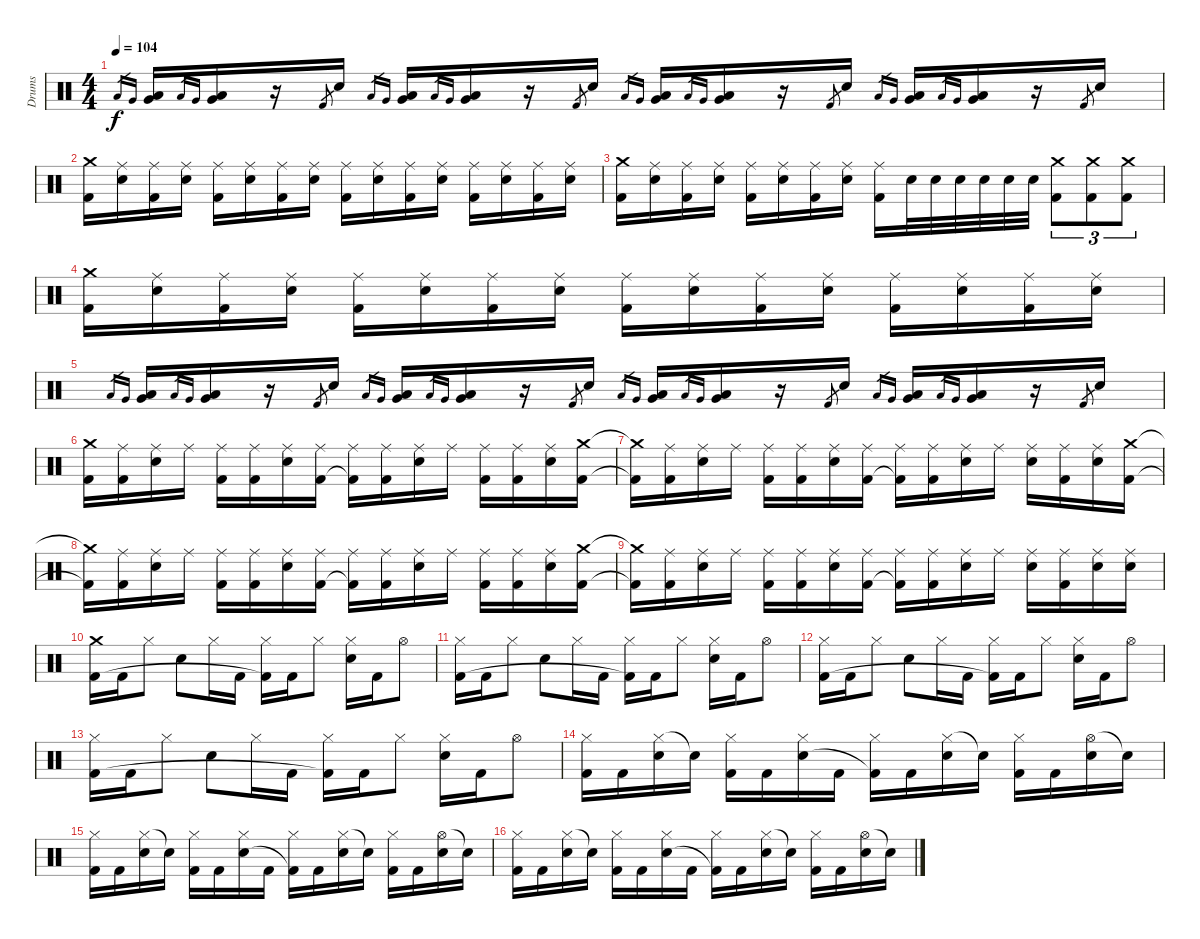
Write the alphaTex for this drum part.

\track ("Drums" "Drums") {instrument percussion}
\staff {score}
\articulation defaults
\ts (4 4)
\tempo 104
\clef neutral
\ks c "Low Floor Tom (hit)".16{gr dy f} "Very Low Tom (hit)".16{gr}
("Very Low Tom (hit)" "Low Tom (hit)").16 "Low Floor Tom (hit)".16{gr} "Very Low Tom (hit)".16{gr} ("Very Low Tom (hit)" "Low Tom (hit)").16 r.16 "Kick (hit) 2".8{gr} "Electric Snare (hit)".16 "Low Floor Tom (hit)".16{gr} "Very Low Tom (hit)".16{gr} ("Very Low Tom (hit)" "Low Tom (hit)").16 "Low Floor Tom (hit)".16{gr} "Very Low Tom (hit)".16{gr} ("Very Low Tom (hit)" "Low Tom (hit)").16 r.16 "Kick (hit) 2".8{gr} "Electric Snare (hit)".16 "Low Floor Tom (hit)".16{gr} "Very Low Tom (hit)".16{gr} ("Very Low Tom (hit)" "Low Tom (hit)").16 "Low Floor Tom (hit)".16{gr} "Very Low Tom (hit)".16{gr} ("Very Low Tom (hit)" "Low Tom (hit)").16 r.16 "Kick (hit) 2".8{gr} "Electric Snare (hit)".16 "Low Floor Tom (hit)".16{gr} "Very Low Tom (hit)".16{gr} ("Very Low Tom (hit)" "Low Tom (hit)").16 "Low Floor Tom (hit)".16{gr} "Very Low Tom (hit)".16{gr} ("Very Low Tom (hit)" "Low Tom (hit)").16 r.16 "Kick (hit) 2".8{gr} "Electric Snare (hit)".16 |
("Crash medium (hit)" "Kick (hit) 2").16 ("Ride (middle)" "Electric Snare (hit)").16 ("Ride (middle)" "Kick (hit) 2").16 ("Ride (middle)" "Electric Snare (hit)").16 ("Ride (middle)" "Kick (hit) 2").16 ("Ride (middle)" "Electric Snare (hit)").16 ("Ride (middle)" "Kick (hit) 2").16 ("Ride (middle)" "Electric Snare (hit)").16 ("Ride (middle)" "Kick (hit) 2").16 ("Ride (middle)" "Electric Snare (hit)").16 ("Ride (middle)" "Kick (hit) 2").16 ("Ride (middle)" "Electric Snare (hit)").16 ("Ride (middle)" "Kick (hit) 2").16 ("Ride (middle)" "Electric Snare (hit)").16 ("Ride (middle)" "Kick (hit) 2").16 ("Ride (middle)" "Electric Snare (hit)").16 |
("Crash medium (hit)" "Kick (hit) 2").16 ("Ride (middle)" "Electric Snare (hit)").16 ("Ride (middle)" "Kick (hit) 2").16 ("Ride (middle)" "Electric Snare (hit)").16 ("Ride (middle)" "Kick (hit) 2").16 ("Ride (middle)" "Electric Snare (hit)").16 ("Ride (middle)" "Kick (hit) 2").16 ("Ride (middle)" "Electric Snare (hit)").16 ("Ride (middle)" "Kick (hit) 2").16 "Electric Snare (hit)".32 "Electric Snare (hit)".32 "Electric Snare (hit)".32 "Electric Snare (hit)".32 "Electric Snare (hit)".32 "Electric Snare (hit)".32 ("Crash medium (hit)" "Kick (hit) 2").8{tu (3 2)} ("Crash medium (hit)" "Kick (hit) 2").8{tu (3 2)} ("Crash medium (hit)" "Kick (hit) 2").8{tu (3 2)} |
("Crash medium (hit)" "Kick (hit) 2").16 ("Ride (middle)" "Electric Snare (hit)").16 ("Ride (middle)" "Kick (hit) 2").16 ("Ride (middle)" "Electric Snare (hit)").16 ("Ride (middle)" "Kick (hit) 2").16 ("Ride (middle)" "Electric Snare (hit)").16 ("Ride (middle)" "Kick (hit) 2").16 ("Ride (middle)" "Electric Snare (hit)").16 ("Ride (middle)" "Kick (hit) 2").16 ("Ride (middle)" "Electric Snare (hit)").16 ("Ride (middle)" "Kick (hit) 2").16 ("Ride (middle)" "Electric Snare (hit)").16 ("Ride (middle)" "Kick (hit) 2").16 ("Ride (middle)" "Electric Snare (hit)").16 ("Ride (middle)" "Kick (hit) 2").16 ("Ride (middle)" "Electric Snare (hit)").16 |
"Low Floor Tom (hit)".16{gr} "Very Low Tom (hit)".16{gr} ("Very Low Tom (hit)" "Low Tom (hit)").16 "Low Floor Tom (hit)".16{gr} "Very Low Tom (hit)".16{gr} ("Very Low Tom (hit)" "Low Tom (hit)").16 r.16 "Kick (hit) 2".8{gr} "Electric Snare (hit)".16 "Low Floor Tom (hit)".16{gr} "Very Low Tom (hit)".16{gr} ("Very Low Tom (hit)" "Low Tom (hit)").16 "Low Floor Tom (hit)".16{gr} "Very Low Tom (hit)".16{gr} ("Very Low Tom (hit)" "Low Tom (hit)").16 r.16 "Kick (hit) 2".8{gr} "Electric Snare (hit)".16 "Low Floor Tom (hit)".16{gr} "Very Low Tom (hit)".16{gr} ("Very Low Tom (hit)" "Low Tom (hit)").16 "Low Floor Tom (hit)".16{gr} "Very Low Tom (hit)".16{gr} ("Very Low Tom (hit)" "Low Tom (hit)").16 r.16 "Kick (hit) 2".8{gr} "Electric Snare (hit)".16 "Low Floor Tom (hit)".16{gr} "Very Low Tom (hit)".16{gr} ("Very Low Tom (hit)" "Low Tom (hit)").16 "Low Floor Tom (hit)".16{gr} "Very Low Tom (hit)".16{gr} ("Very Low Tom (hit)" "Low Tom (hit)").16 r.16 "Kick (hit) 2".8{gr} "Electric Snare (hit)".16 |
("Crash medium (hit)" "Kick (hit) 2").16 ("Ride (middle)" "Kick (hit) 2").16 ("Ride (middle)" "Electric Snare (hit)").16 "Ride (middle)".16 ("Ride (middle)" "Kick (hit) 2").16 ("Ride (middle)" "Kick (hit) 2").16 ("Ride (middle)" "Electric Snare (hit)").16 ("Ride (middle)" "Kick (hit) 2").16 ("Ride (middle)" "Kick (hit) 2"{t}).16 ("Ride (middle)" "Kick (hit) 2").16 ("Ride (middle)" "Electric Snare (hit)").16 "Ride (middle)".16 ("Ride (middle)" "Kick (hit) 2").16 ("Ride (middle)" "Kick (hit) 2").16 ("Ride (middle)" "Electric Snare (hit)").16 ("Crash medium (hit)" "Kick (hit) 2").16 |
("Crash medium (hit)"{t} "Kick (hit) 2"{t}).16 ("Ride (middle)" "Kick (hit) 2").16 ("Ride (middle)" "Electric Snare (hit)").16 "Ride (middle)".16 ("Ride (middle)" "Kick (hit) 2").16 ("Ride (middle)" "Kick (hit) 2").16 ("Ride (middle)" "Electric Snare (hit)").16 ("Ride (middle)" "Kick (hit) 2").16 ("Ride (middle)" "Kick (hit) 2"{t}).16 ("Ride (middle)" "Kick (hit) 2").16 ("Ride (middle)" "Electric Snare (hit)").16 "Ride (middle)".16 ("Ride (middle)" "Electric Snare (hit)").16 ("Ride (middle)" "Kick (hit) 2").16 ("Ride (middle)" "Electric Snare (hit)").16 ("Crash medium (hit)" "Kick (hit) 2").16 |
("Crash medium (hit)"{t} "Kick (hit) 2"{t}).16 ("Ride (middle)" "Kick (hit) 2").16 ("Ride (middle)" "Electric Snare (hit)").16 "Ride (middle)".16 ("Ride (middle)" "Kick (hit) 2").16 ("Ride (middle)" "Kick (hit) 2").16 ("Ride (middle)" "Electric Snare (hit)").16 ("Ride (middle)" "Kick (hit) 2").16 ("Ride (middle)" "Kick (hit) 2"{t}).16 ("Ride (middle)" "Kick (hit) 2").16 ("Ride (middle)" "Electric Snare (hit)").16 "Ride (middle)".16 ("Ride (middle)" "Kick (hit) 2").16 ("Ride (middle)" "Kick (hit) 2").16 ("Ride (middle)" "Electric Snare (hit)").16 ("Crash medium (hit)" "Kick (hit) 2").16 |
("Crash medium (hit)"{t} "Kick (hit) 2"{t}).16 ("Ride (middle)" "Kick (hit) 2").16 ("Ride (middle)" "Electric Snare (hit)").16 "Ride (middle)".16 ("Ride (middle)" "Kick (hit) 2").16 ("Ride (middle)" "Kick (hit) 2").16 ("Ride (middle)" "Electric Snare (hit)").16 ("Ride (middle)" "Kick (hit) 2").16 ("Ride (middle)" "Kick (hit) 2"{t}).16 ("Ride (middle)" "Kick (hit) 2").16 ("Ride (middle)" "Electric Snare (hit)").16 "Ride (middle)".16 ("Ride (middle)" "Electric Snare (hit)").16 ("Ride (middle)" "Kick (hit) 2").16 ("Ride (middle)" "Electric Snare (hit)").16 ("Ride (middle)" "Electric Snare (hit)").16 |
("Crash medium (hit)" "Kick (hit) 2").16 "Kick (hit) 2".16 "Hi-Hat (closed)".8 "Electric Snare (hit)".8 "Hi-Hat (closed)".16 "Kick (hit) 2".16 ("Hi-Hat (closed)" "Kick (hit) 2"{t}).16 "Kick (hit) 2".16 "Hi-Hat (closed)".8 ("Hi-Hat (closed)" "Electric Snare (hit)").16 "Kick (hit) 2".16 "Hi-Hat (open)".8 |
("Hi-Hat (closed)" "Kick (hit) 2").16 "Kick (hit) 2".16 "Hi-Hat (closed)".8 "Electric Snare (hit)".8 "Hi-Hat (closed)".16 "Kick (hit) 2".16 ("Hi-Hat (closed)" "Kick (hit) 2"{t}).16 "Kick (hit) 2".16 "Hi-Hat (closed)".8 ("Hi-Hat (closed)" "Electric Snare (hit)").16 "Kick (hit) 2".16 "Hi-Hat (open)".8 |
("Hi-Hat (closed)" "Kick (hit) 2").16 "Kick (hit) 2".16 "Hi-Hat (closed)".8 "Electric Snare (hit)".8 "Hi-Hat (closed)".16 "Kick (hit) 2".16 ("Hi-Hat (closed)" "Kick (hit) 2"{t}).16 "Kick (hit) 2".16 "Hi-Hat (closed)".8 ("Hi-Hat (closed)" "Electric Snare (hit)").16 "Kick (hit) 2".16 "Hi-Hat (open)".8 |
("Hi-Hat (closed)" "Kick (hit) 2").16 "Kick (hit) 2".16 "Hi-Hat (closed)".8 "Electric Snare (hit)".8 "Hi-Hat (closed)".16 "Kick (hit) 2".16 ("Hi-Hat (closed)" "Kick (hit) 2"{t}).16 "Kick (hit) 2".16 "Hi-Hat (closed)".8 ("Hi-Hat (closed)" "Electric Snare (hit)").16 "Kick (hit) 2".16 "Hi-Hat (open)".8 |
("Hi-Hat (closed)" "Kick (hit) 2").16 "Kick (hit) 2".16 ("Hi-Hat (closed)" "Electric Snare (hit)").16 "Electric Snare (hit)"{t}.16 ("Hi-Hat (closed)" "Kick (hit) 2").16 "Kick (hit) 2".16 ("Hi-Hat (closed)" "Electric Snare (hit)").16 "Kick (hit) 2".16 ("Hi-Hat (closed)" "Kick (hit) 2"{t}).16 "Kick (hit) 2".16 ("Hi-Hat (closed)" "Electric Snare (hit)").16 "Electric Snare (hit)"{t}.16 ("Hi-Hat (closed)" "Kick (hit) 2").16 "Kick (hit) 2".16 ("Hi-Hat (open)" "Electric Snare (hit)").16 "Electric Snare (hit)"{t}.16 |
("Hi-Hat (closed)" "Kick (hit) 2").16 "Kick (hit) 2".16 ("Hi-Hat (closed)" "Electric Snare (hit)").16 "Electric Snare (hit)"{t}.16 ("Hi-Hat (closed)" "Kick (hit) 2").16 "Kick (hit) 2".16 ("Hi-Hat (closed)" "Electric Snare (hit)").16 "Kick (hit) 2".16 ("Hi-Hat (closed)" "Kick (hit) 2"{t}).16 "Kick (hit) 2".16 ("Hi-Hat (closed)" "Electric Snare (hit)").16 "Electric Snare (hit)"{t}.16 ("Hi-Hat (closed)" "Kick (hit) 2").16 "Kick (hit) 2".16 ("Hi-Hat (open)" "Electric Snare (hit)").16 "Electric Snare (hit)"{t}.16 |
("Hi-Hat (closed)" "Kick (hit) 2").16 "Kick (hit) 2".16 ("Hi-Hat (closed)" "Electric Snare (hit)").16 "Electric Snare (hit)"{t}.16 ("Hi-Hat (closed)" "Kick (hit) 2").16 "Kick (hit) 2".16 ("Hi-Hat (closed)" "Electric Snare (hit)").16 "Kick (hit) 2".16 ("Hi-Hat (closed)" "Kick (hit) 2"{t}).16 "Kick (hit) 2".16 ("Hi-Hat (closed)" "Electric Snare (hit)").16 "Electric Snare (hit)"{t}.16 ("Hi-Hat (closed)" "Kick (hit) 2").16 "Kick (hit) 2".16 ("Hi-Hat (open)" "Electric Snare (hit)").16 "Electric Snare (hit)"{t}.16
